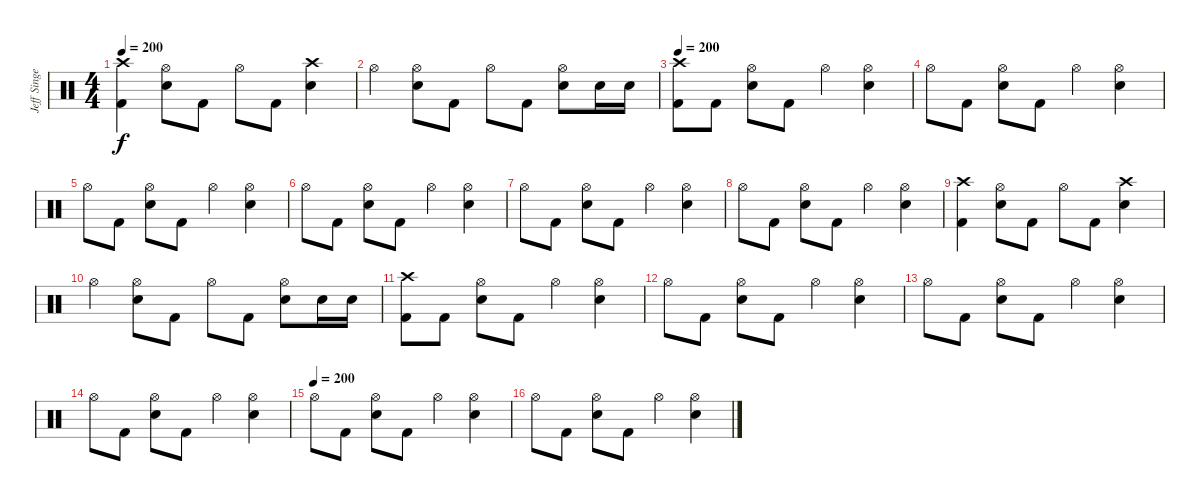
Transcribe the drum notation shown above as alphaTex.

\track ("Jeff Singer" "Jeff Singe") {instrument percussion}
\staff {score}
\articulation defaults
\ts (4 4)
\tempo 200
\clef neutral
\ks c
("Crash high (hit)" "Kick (hit) 2").4{dy f} ("Hi-Hat (open)" "Snare (hit) 2").8 "Kick (hit) 2".8 "Hi-Hat (open)".8 "Kick (hit) 2".8 ("Crash high (hit)" "Snare (hit) 2").4 |
"Hi-Hat (open)".4 ("Hi-Hat (open)" "Snare (hit) 2").8 "Kick (hit) 2".8 "Hi-Hat (open)".8 "Kick (hit) 2".8 ("Hi-Hat (open)" "Snare (hit) 2").8 "Snare (hit) 2".16 "Snare (hit) 2".16 |
\tempo 200
("Crash high (hit)" "Kick (hit) 2").8 "Kick (hit) 2".8 ("Hi-Hat (open)" "Snare (hit) 2").8 "Kick (hit) 2".8 "Hi-Hat (open)".4 ("Hi-Hat (open)" "Snare (hit) 2").4 |
"Hi-Hat (open)".8 "Kick (hit) 2".8 ("Hi-Hat (open)" "Snare (hit) 2").8 "Kick (hit) 2".8 "Hi-Hat (open)".4 ("Hi-Hat (open)" "Snare (hit) 2").4 |
"Hi-Hat (open)".8 "Kick (hit) 2".8 ("Hi-Hat (open)" "Snare (hit) 2").8 "Kick (hit) 2".8 "Hi-Hat (open)".4 ("Hi-Hat (open)" "Snare (hit) 2").4 |
"Hi-Hat (open)".8 "Kick (hit) 2".8 ("Hi-Hat (open)" "Snare (hit) 2").8 "Kick (hit) 2".8 "Hi-Hat (open)".4 ("Hi-Hat (open)" "Snare (hit) 2").4 |
"Hi-Hat (open)".8 "Kick (hit) 2".8 ("Hi-Hat (open)" "Snare (hit) 2").8 "Kick (hit) 2".8 "Hi-Hat (open)".4 ("Hi-Hat (open)" "Snare (hit) 2").4 |
"Hi-Hat (open)".8 "Kick (hit) 2".8 ("Hi-Hat (open)" "Snare (hit) 2").8 "Kick (hit) 2".8 "Hi-Hat (open)".4 ("Hi-Hat (open)" "Snare (hit) 2").4 |
("Crash high (hit)" "Kick (hit) 2").4 ("Hi-Hat (open)" "Snare (hit) 2").8 "Kick (hit) 2".8 "Hi-Hat (open)".8 "Kick (hit) 2".8 ("Crash high (hit)" "Snare (hit) 2").4 |
"Hi-Hat (open)".4 ("Hi-Hat (open)" "Snare (hit) 2").8 "Kick (hit) 2".8 "Hi-Hat (open)".8 "Kick (hit) 2".8 ("Hi-Hat (open)" "Snare (hit) 2").8 "Snare (hit) 2".16 "Snare (hit) 2".16 |
("Crash high (hit)" "Kick (hit) 2").8 "Kick (hit) 2".8 ("Hi-Hat (open)" "Snare (hit) 2").8 "Kick (hit) 2".8 "Hi-Hat (open)".4 ("Hi-Hat (open)" "Snare (hit) 2").4 |
"Hi-Hat (open)".8 "Kick (hit) 2".8 ("Hi-Hat (open)" "Snare (hit) 2").8 "Kick (hit) 2".8 "Hi-Hat (open)".4 ("Hi-Hat (open)" "Snare (hit) 2").4 |
"Hi-Hat (open)".8 "Kick (hit) 2".8 ("Hi-Hat (open)" "Snare (hit) 2").8 "Kick (hit) 2".8 "Hi-Hat (open)".4 ("Hi-Hat (open)" "Snare (hit) 2").4 |
"Hi-Hat (open)".8 "Kick (hit) 2".8 ("Hi-Hat (open)" "Snare (hit) 2").8 "Kick (hit) 2".8 "Hi-Hat (open)".4 ("Hi-Hat (open)" "Snare (hit) 2").4 |
\tempo (200)
"Hi-Hat (open)".8 "Kick (hit) 2".8 ("Hi-Hat (open)" "Snare (hit) 2").8 "Kick (hit) 2".8 "Hi-Hat (open)".4 ("Hi-Hat (open)" "Snare (hit) 2").4 |
"Hi-Hat (open)".8 "Kick (hit) 2".8 ("Hi-Hat (open)" "Snare (hit) 2").8 "Kick (hit) 2".8 "Hi-Hat (open)".4 ("Hi-Hat (open)" "Snare (hit) 2").4
